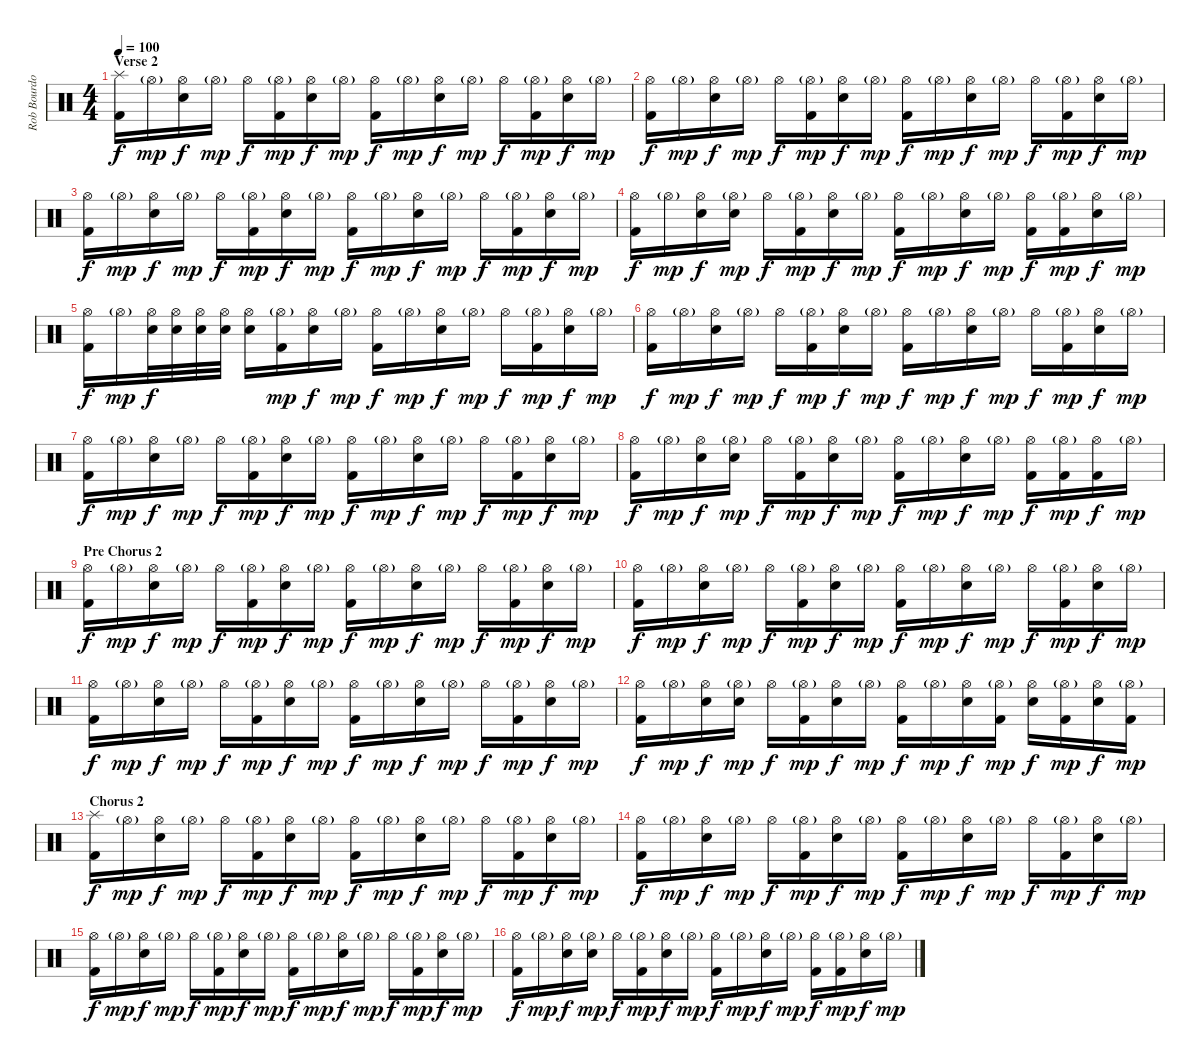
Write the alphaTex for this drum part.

\track ("Rob Bourdon (Drums)" "Rob Bourdo") {instrument percussion}
\staff {score}
\articulation defaults
\ts (4 4)
\section ("" "Verse 2")
\tempo 100
\clef neutral
\ks c
("Splash (hit)" "Kick (hit) 2").16{dy f} "Hi-Hat (open)"{g}.16{dy mp} ("Hi-Hat (open)" "Electric Snare (hit)").16{dy f} "Hi-Hat (open)"{g}.16{dy mp} "Hi-Hat (open)".16{dy f} ("Hi-Hat (open)"{g} "Kick (hit) 2").16{dy mp} ("Hi-Hat (open)" "Electric Snare (hit)").16{dy f} "Hi-Hat (open)"{g}.16{dy mp} ("Hi-Hat (open)" "Kick (hit) 2").16{dy f} "Hi-Hat (open)"{g}.16{dy mp} ("Hi-Hat (open)" "Electric Snare (hit)").16{dy f} "Hi-Hat (open)"{g}.16{dy mp} "Hi-Hat (open)".16{dy f} ("Hi-Hat (open)"{g} "Kick (hit) 2").16{dy mp} ("Hi-Hat (open)" "Electric Snare (hit)").16{dy f} "Hi-Hat (open)"{g}.16{dy mp} |
("Hi-Hat (open)" "Kick (hit) 2").16{dy f} "Hi-Hat (open)"{g}.16{dy mp} ("Hi-Hat (open)" "Electric Snare (hit)").16{dy f} "Hi-Hat (open)"{g}.16{dy mp} "Hi-Hat (open)".16{dy f} ("Hi-Hat (open)"{g} "Kick (hit) 2").16{dy mp} ("Hi-Hat (open)" "Electric Snare (hit)").16{dy f} "Hi-Hat (open)"{g}.16{dy mp} ("Hi-Hat (open)" "Kick (hit) 2").16{dy f} "Hi-Hat (open)"{g}.16{dy mp} ("Hi-Hat (open)" "Electric Snare (hit)").16{dy f} "Hi-Hat (open)"{g}.16{dy mp} "Hi-Hat (open)".16{dy f} ("Hi-Hat (open)"{g} "Kick (hit) 2").16{dy mp} ("Hi-Hat (open)" "Electric Snare (hit)").16{dy f} "Hi-Hat (open)"{g}.16{dy mp} |
("Hi-Hat (open)" "Kick (hit) 2").16{dy f} "Hi-Hat (open)"{g}.16{dy mp} ("Hi-Hat (open)" "Electric Snare (hit)").16{dy f} "Hi-Hat (open)"{g}.16{dy mp} "Hi-Hat (open)".16{dy f} ("Hi-Hat (open)"{g} "Kick (hit) 2").16{dy mp} ("Hi-Hat (open)" "Electric Snare (hit)").16{dy f} "Hi-Hat (open)"{g}.16{dy mp} ("Hi-Hat (open)" "Kick (hit) 2").16{dy f} "Hi-Hat (open)"{g}.16{dy mp} ("Hi-Hat (open)" "Electric Snare (hit)").16{dy f} "Hi-Hat (open)"{g}.16{dy mp} "Hi-Hat (open)".16{dy f} ("Hi-Hat (open)"{g} "Kick (hit) 2").16{dy mp} ("Hi-Hat (open)" "Electric Snare (hit)").16{dy f} "Hi-Hat (open)"{g}.16{dy mp} |
("Hi-Hat (open)" "Kick (hit) 2").16{dy f} "Hi-Hat (open)"{g}.16{dy mp} ("Hi-Hat (open)" "Electric Snare (hit)").16{dy f} ("Hi-Hat (open)"{g} "Electric Snare (hit)").16{dy mp} "Hi-Hat (open)".16{dy f} ("Hi-Hat (open)"{g} "Kick (hit) 2").16{dy mp} ("Hi-Hat (open)" "Electric Snare (hit)").16{dy f} "Hi-Hat (open)"{g}.16{dy mp} ("Hi-Hat (open)" "Kick (hit) 2").16{dy f} "Hi-Hat (open)"{g}.16{dy mp} ("Hi-Hat (open)" "Electric Snare (hit)").16{dy f} "Hi-Hat (open)"{g}.16{dy mp} ("Hi-Hat (open)" "Kick (hit) 2").16{dy f} ("Hi-Hat (open)"{g} "Kick (hit) 2").16{dy mp} ("Hi-Hat (open)" "Electric Snare (hit)").16{dy f} "Hi-Hat (open)"{g}.16{dy mp} |
("Hi-Hat (open)" "Kick (hit) 2").16{dy f} "Hi-Hat (open)"{g}.16{dy mp} ("Hi-Hat (open)" "Electric Snare (hit)").32{dy f} ("Hi-Hat (open)" "Electric Snare (hit)").32 ("Hi-Hat (open)" "Electric Snare (hit)").32 ("Hi-Hat (open)" "Electric Snare (hit)").32 ("Hi-Hat (open)" "Electric Snare (hit)").16 ("Hi-Hat (open)"{g} "Kick (hit) 2").16{dy mp} ("Hi-Hat (open)" "Electric Snare (hit)").16{dy f} "Hi-Hat (open)"{g}.16{dy mp} ("Hi-Hat (open)" "Kick (hit) 2").16{dy f} "Hi-Hat (open)"{g}.16{dy mp} ("Hi-Hat (open)" "Electric Snare (hit)").16{dy f} "Hi-Hat (open)"{g}.16{dy mp} "Hi-Hat (open)".16{dy f} ("Hi-Hat (open)"{g} "Kick (hit) 2").16{dy mp} ("Hi-Hat (open)" "Electric Snare (hit)").16{dy f} "Hi-Hat (open)"{g}.16{dy mp} |
("Hi-Hat (open)" "Kick (hit) 2").16{dy f} "Hi-Hat (open)"{g}.16{dy mp} ("Hi-Hat (open)" "Electric Snare (hit)").16{dy f} "Hi-Hat (open)"{g}.16{dy mp} "Hi-Hat (open)".16{dy f} ("Hi-Hat (open)"{g} "Kick (hit) 2").16{dy mp} ("Hi-Hat (open)" "Electric Snare (hit)").16{dy f} "Hi-Hat (open)"{g}.16{dy mp} ("Hi-Hat (open)" "Kick (hit) 2").16{dy f} "Hi-Hat (open)"{g}.16{dy mp} ("Hi-Hat (open)" "Electric Snare (hit)").16{dy f} "Hi-Hat (open)"{g}.16{dy mp} "Hi-Hat (open)".16{dy f} ("Hi-Hat (open)"{g} "Kick (hit) 2").16{dy mp} ("Hi-Hat (open)" "Electric Snare (hit)").16{dy f} "Hi-Hat (open)"{g}.16{dy mp} |
("Hi-Hat (open)" "Kick (hit) 2").16{dy f} "Hi-Hat (open)"{g}.16{dy mp} ("Hi-Hat (open)" "Electric Snare (hit)").16{dy f} "Hi-Hat (open)"{g}.16{dy mp} "Hi-Hat (open)".16{dy f} ("Hi-Hat (open)"{g} "Kick (hit) 2").16{dy mp} ("Hi-Hat (open)" "Electric Snare (hit)").16{dy f} "Hi-Hat (open)"{g}.16{dy mp} ("Hi-Hat (open)" "Kick (hit) 2").16{dy f} "Hi-Hat (open)"{g}.16{dy mp} ("Hi-Hat (open)" "Electric Snare (hit)").16{dy f} "Hi-Hat (open)"{g}.16{dy mp} "Hi-Hat (open)".16{dy f} ("Hi-Hat (open)"{g} "Kick (hit) 2").16{dy mp} ("Hi-Hat (open)" "Electric Snare (hit)").16{dy f} "Hi-Hat (open)"{g}.16{dy mp} |
("Hi-Hat (open)" "Kick (hit) 2").16{dy f} "Hi-Hat (open)"{g}.16{dy mp} ("Hi-Hat (open)" "Electric Snare (hit)").16{dy f} ("Hi-Hat (open)"{g} "Electric Snare (hit)").16{dy mp} "Hi-Hat (open)".16{dy f} ("Hi-Hat (open)"{g} "Kick (hit) 2").16{dy mp} ("Hi-Hat (open)" "Electric Snare (hit)").16{dy f} "Hi-Hat (open)"{g}.16{dy mp} ("Hi-Hat (open)" "Kick (hit) 2").16{dy f} "Hi-Hat (open)"{g}.16{dy mp} ("Hi-Hat (open)" "Electric Snare (hit)").16{dy f} "Hi-Hat (open)"{g}.16{dy mp} ("Hi-Hat (open)" "Kick (hit) 2").16{dy f} ("Hi-Hat (open)"{g} "Kick (hit) 2").16{dy mp} ("Hi-Hat (open)" "Kick (hit) 2").16{dy f} "Hi-Hat (open)"{g}.16{dy mp} |
\section ("" "Pre Chorus 2")
("Hi-Hat (open)" "Kick (hit) 2").16{dy f} "Hi-Hat (open)"{g}.16{dy mp} ("Hi-Hat (open)" "Electric Snare (hit)").16{dy f} "Hi-Hat (open)"{g}.16{dy mp} "Hi-Hat (open)".16{dy f} ("Hi-Hat (open)"{g} "Kick (hit) 2").16{dy mp} ("Hi-Hat (open)" "Electric Snare (hit)").16{dy f} "Hi-Hat (open)"{g}.16{dy mp} ("Hi-Hat (open)" "Kick (hit) 2").16{dy f} "Hi-Hat (open)"{g}.16{dy mp} ("Hi-Hat (open)" "Electric Snare (hit)").16{dy f} "Hi-Hat (open)"{g}.16{dy mp} "Hi-Hat (open)".16{dy f} ("Hi-Hat (open)"{g} "Kick (hit) 2").16{dy mp} ("Hi-Hat (open)" "Electric Snare (hit)").16{dy f} "Hi-Hat (open)"{g}.16{dy mp} |
("Hi-Hat (open)" "Kick (hit) 2").16{dy f} "Hi-Hat (open)"{g}.16{dy mp} ("Hi-Hat (open)" "Electric Snare (hit)").16{dy f} "Hi-Hat (open)"{g}.16{dy mp} "Hi-Hat (open)".16{dy f} ("Hi-Hat (open)"{g} "Kick (hit) 2").16{dy mp} ("Hi-Hat (open)" "Electric Snare (hit)").16{dy f} "Hi-Hat (open)"{g}.16{dy mp} ("Hi-Hat (open)" "Kick (hit) 2").16{dy f} "Hi-Hat (open)"{g}.16{dy mp} ("Hi-Hat (open)" "Electric Snare (hit)").16{dy f} "Hi-Hat (open)"{g}.16{dy mp} "Hi-Hat (open)".16{dy f} ("Hi-Hat (open)"{g} "Kick (hit) 2").16{dy mp} ("Hi-Hat (open)" "Electric Snare (hit)").16{dy f} "Hi-Hat (open)"{g}.16{dy mp} |
("Hi-Hat (open)" "Kick (hit) 2").16{dy f} "Hi-Hat (open)"{g}.16{dy mp} ("Hi-Hat (open)" "Electric Snare (hit)").16{dy f} "Hi-Hat (open)"{g}.16{dy mp} "Hi-Hat (open)".16{dy f} ("Hi-Hat (open)"{g} "Kick (hit) 2").16{dy mp} ("Hi-Hat (open)" "Electric Snare (hit)").16{dy f} "Hi-Hat (open)"{g}.16{dy mp} ("Hi-Hat (open)" "Kick (hit) 2").16{dy f} "Hi-Hat (open)"{g}.16{dy mp} ("Hi-Hat (open)" "Electric Snare (hit)").16{dy f} "Hi-Hat (open)"{g}.16{dy mp} "Hi-Hat (open)".16{dy f} ("Hi-Hat (open)"{g} "Kick (hit) 2").16{dy mp} ("Hi-Hat (open)" "Electric Snare (hit)").16{dy f} "Hi-Hat (open)"{g}.16{dy mp} |
("Hi-Hat (open)" "Kick (hit) 2").16{dy f} "Hi-Hat (open)"{g}.16{dy mp} ("Hi-Hat (open)" "Electric Snare (hit)").16{dy f} ("Hi-Hat (open)"{g} "Electric Snare (hit)").16{dy mp} "Hi-Hat (open)".16{dy f} ("Hi-Hat (open)"{g} "Kick (hit) 2").16{dy mp} ("Hi-Hat (open)" "Electric Snare (hit)").16{dy f} "Hi-Hat (open)"{g}.16{dy mp} ("Hi-Hat (open)" "Kick (hit) 2").16{dy f} "Hi-Hat (open)"{g}.16{dy mp} ("Hi-Hat (open)" "Electric Snare (hit)").16{dy f} ("Hi-Hat (open)"{g} "Kick (hit) 2").16{dy mp} ("Hi-Hat (open)" "Electric Snare (hit)").16{dy f} ("Hi-Hat (open)"{g} "Kick (hit) 2").16{dy mp} ("Hi-Hat (open)" "Electric Snare (hit)").16{dy f} ("Hi-Hat (open)"{g} "Kick (hit) 2").16{dy mp} |
\section ("" "Chorus 2")
("Splash (hit)" "Kick (hit) 2").16{dy f} "Hi-Hat (open)"{g}.16{dy mp} ("Hi-Hat (open)" "Electric Snare (hit)").16{dy f} "Hi-Hat (open)"{g}.16{dy mp} "Hi-Hat (open)".16{dy f} ("Hi-Hat (open)"{g} "Kick (hit) 2").16{dy mp} ("Hi-Hat (open)" "Electric Snare (hit)").16{dy f} "Hi-Hat (open)"{g}.16{dy mp} ("Hi-Hat (open)" "Kick (hit) 2").16{dy f} "Hi-Hat (open)"{g}.16{dy mp} ("Hi-Hat (open)" "Electric Snare (hit)").16{dy f} "Hi-Hat (open)"{g}.16{dy mp} "Hi-Hat (open)".16{dy f} ("Hi-Hat (open)"{g} "Kick (hit) 2").16{dy mp} ("Hi-Hat (open)" "Electric Snare (hit)").16{dy f} "Hi-Hat (open)"{g}.16{dy mp} |
("Hi-Hat (open)" "Kick (hit) 2").16{dy f} "Hi-Hat (open)"{g}.16{dy mp} ("Hi-Hat (open)" "Electric Snare (hit)").16{dy f} "Hi-Hat (open)"{g}.16{dy mp} "Hi-Hat (open)".16{dy f} ("Hi-Hat (open)"{g} "Kick (hit) 2").16{dy mp} ("Hi-Hat (open)" "Electric Snare (hit)").16{dy f} "Hi-Hat (open)"{g}.16{dy mp} ("Hi-Hat (open)" "Kick (hit) 2").16{dy f} "Hi-Hat (open)"{g}.16{dy mp} ("Hi-Hat (open)" "Electric Snare (hit)").16{dy f} "Hi-Hat (open)"{g}.16{dy mp} "Hi-Hat (open)".16{dy f} ("Hi-Hat (open)"{g} "Kick (hit) 2").16{dy mp} ("Hi-Hat (open)" "Electric Snare (hit)").16{dy f} "Hi-Hat (open)"{g}.16{dy mp} |
("Hi-Hat (open)" "Kick (hit) 2").16{dy f} "Hi-Hat (open)"{g}.16{dy mp} ("Hi-Hat (open)" "Electric Snare (hit)").16{dy f} "Hi-Hat (open)"{g}.16{dy mp} "Hi-Hat (open)".16{dy f} ("Hi-Hat (open)"{g} "Kick (hit) 2").16{dy mp} ("Hi-Hat (open)" "Electric Snare (hit)").16{dy f} "Hi-Hat (open)"{g}.16{dy mp} ("Hi-Hat (open)" "Kick (hit) 2").16{dy f} "Hi-Hat (open)"{g}.16{dy mp} ("Hi-Hat (open)" "Electric Snare (hit)").16{dy f} "Hi-Hat (open)"{g}.16{dy mp} "Hi-Hat (open)".16{dy f} ("Hi-Hat (open)"{g} "Kick (hit) 2").16{dy mp} ("Hi-Hat (open)" "Electric Snare (hit)").16{dy f} "Hi-Hat (open)"{g}.16{dy mp} |
("Hi-Hat (open)" "Kick (hit) 2").16{dy f} "Hi-Hat (open)"{g}.16{dy mp} ("Hi-Hat (open)" "Electric Snare (hit)").16{dy f} ("Hi-Hat (open)"{g} "Electric Snare (hit)").16{dy mp} "Hi-Hat (open)".16{dy f} ("Hi-Hat (open)"{g} "Kick (hit) 2").16{dy mp} ("Hi-Hat (open)" "Electric Snare (hit)").16{dy f} "Hi-Hat (open)"{g}.16{dy mp} ("Hi-Hat (open)" "Kick (hit) 2").16{dy f} "Hi-Hat (open)"{g}.16{dy mp} ("Hi-Hat (open)" "Electric Snare (hit)").16{dy f} "Hi-Hat (open)"{g}.16{dy mp} ("Hi-Hat (open)" "Kick (hit) 2").16{dy f} ("Hi-Hat (open)"{g} "Kick (hit) 2").16{dy mp} ("Hi-Hat (open)" "Electric Snare (hit)").16{dy f} "Hi-Hat (open)"{g}.16{dy mp}
